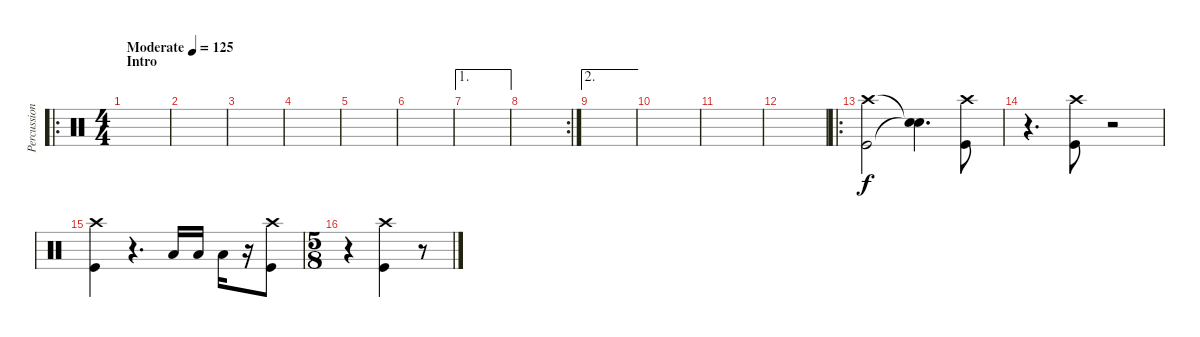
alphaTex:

\track ("Percussion" "Percussion") {instrument percussion}
\staff {score}
\articulation defaults
\ro
\ts (4 4)
\section ("" "Intro")
\tempo (125 "Moderate")
\clef neutral
\ks c
|
|
|
|
|
|
\ae 1
|
\rc 2
|
\ae 2
|
|
|
|
\ro
("Crash high (hit)" "Kick (hit)").2 ("Snare (hit)"{t} "Snare (hit)"{t}).4{d} ("Crash high (hit)" "Kick (hit)").8 |
r.4{d} ("Crash high (hit)" "Kick (hit)").8 r.2 |
("Crash high (hit)" "Kick (hit)").4 r.4{d} "Low Tom (hit)".16 "Low Tom (hit)".16 "Low Tom (hit)".16 r.16 ("Crash high (hit)" "Kick (hit)").8 |
\ts (5 8)
r.4 ("Crash high (hit)" "Kick (hit)").4 r.8
